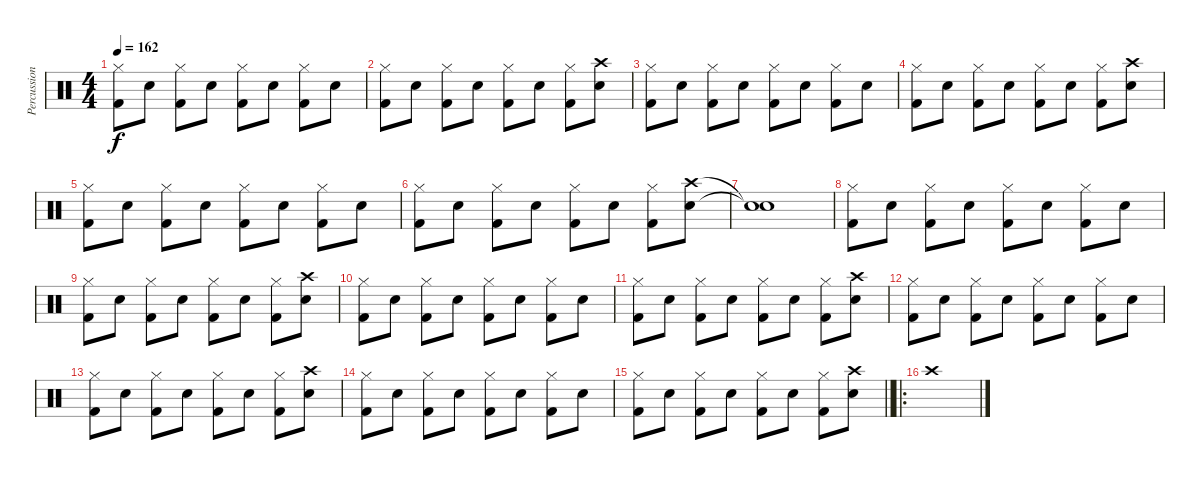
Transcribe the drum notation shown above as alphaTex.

\track ("Percussion" "Percussion") {instrument percussion}
\staff {score}
\articulation defaults
\ts (4 4)
\tempo 162
\clef neutral
\ks c
("Hi-Hat (closed)" "Kick (hit) 2").8{dy f} "Snare (hit) 2".8 ("Hi-Hat (closed)" "Kick (hit) 2").8 "Snare (hit) 2".8 ("Hi-Hat (closed)" "Kick (hit) 2").8 "Snare (hit) 2".8 ("Hi-Hat (closed)" "Kick (hit) 2").8 "Snare (hit) 2".8 |
("Hi-Hat (closed)" "Kick (hit) 2").8 "Snare (hit) 2".8 ("Hi-Hat (closed)" "Kick (hit) 2").8 "Snare (hit) 2".8 ("Hi-Hat (closed)" "Kick (hit) 2").8 "Snare (hit) 2".8 ("Hi-Hat (closed)" "Kick (hit) 2").8 ("Crash high (hit)" "Snare (hit) 2").8 |
("Hi-Hat (closed)" "Kick (hit) 2").8 "Snare (hit) 2".8 ("Hi-Hat (closed)" "Kick (hit) 2").8 "Snare (hit) 2".8 ("Hi-Hat (closed)" "Kick (hit) 2").8 "Snare (hit) 2".8 ("Hi-Hat (closed)" "Kick (hit) 2").8 "Snare (hit) 2".8 |
("Hi-Hat (closed)" "Kick (hit) 2").8 "Snare (hit) 2".8 ("Hi-Hat (closed)" "Kick (hit) 2").8 "Snare (hit) 2".8 ("Hi-Hat (closed)" "Kick (hit) 2").8 "Snare (hit) 2".8 ("Hi-Hat (closed)" "Kick (hit) 2").8 ("Crash high (hit)" "Snare (hit) 2").8 |
("Hi-Hat (closed)" "Kick (hit) 2").8 "Snare (hit) 2".8 ("Hi-Hat (closed)" "Kick (hit) 2").8 "Snare (hit) 2".8 ("Hi-Hat (closed)" "Kick (hit) 2").8 "Snare (hit) 2".8 ("Hi-Hat (closed)" "Kick (hit) 2").8 "Snare (hit) 2".8 |
("Hi-Hat (closed)" "Kick (hit) 2").8 "Snare (hit) 2".8 ("Hi-Hat (closed)" "Kick (hit) 2").8 "Snare (hit) 2".8 ("Hi-Hat (closed)" "Kick (hit) 2").8 "Snare (hit) 2".8 ("Hi-Hat (closed)" "Kick (hit) 2").8 ("Crash high (hit)" "Snare (hit) 2").8 |
("Snare (hit)"{t} "Snare (hit)"{t}).1 |
("Hi-Hat (closed)" "Kick (hit) 2").8 "Snare (hit) 2".8 ("Hi-Hat (closed)" "Kick (hit) 2").8 "Snare (hit) 2".8 ("Hi-Hat (closed)" "Kick (hit) 2").8 "Snare (hit) 2".8 ("Hi-Hat (closed)" "Kick (hit) 2").8 "Snare (hit) 2".8 |
("Hi-Hat (closed)" "Kick (hit) 2").8 "Snare (hit) 2".8 ("Hi-Hat (closed)" "Kick (hit) 2").8 "Snare (hit) 2".8 ("Hi-Hat (closed)" "Kick (hit) 2").8 "Snare (hit) 2".8 ("Hi-Hat (closed)" "Kick (hit) 2").8 ("Crash high (hit)" "Snare (hit) 2").8 |
("Hi-Hat (closed)" "Kick (hit) 2").8 "Snare (hit) 2".8 ("Hi-Hat (closed)" "Kick (hit) 2").8 "Snare (hit) 2".8 ("Hi-Hat (closed)" "Kick (hit) 2").8 "Snare (hit) 2".8 ("Hi-Hat (closed)" "Kick (hit) 2").8 "Snare (hit) 2".8 |
("Hi-Hat (closed)" "Kick (hit) 2").8 "Snare (hit) 2".8 ("Hi-Hat (closed)" "Kick (hit) 2").8 "Snare (hit) 2".8 ("Hi-Hat (closed)" "Kick (hit) 2").8 "Snare (hit) 2".8 ("Hi-Hat (closed)" "Kick (hit) 2").8 ("Crash high (hit)" "Snare (hit) 2").8 |
("Hi-Hat (closed)" "Kick (hit) 2").8 "Snare (hit) 2".8 ("Hi-Hat (closed)" "Kick (hit) 2").8 "Snare (hit) 2".8 ("Hi-Hat (closed)" "Kick (hit) 2").8 "Snare (hit) 2".8 ("Hi-Hat (closed)" "Kick (hit) 2").8 "Snare (hit) 2".8 |
("Hi-Hat (closed)" "Kick (hit) 2").8 "Snare (hit) 2".8 ("Hi-Hat (closed)" "Kick (hit) 2").8 "Snare (hit) 2".8 ("Hi-Hat (closed)" "Kick (hit) 2").8 "Snare (hit) 2".8 ("Hi-Hat (closed)" "Kick (hit) 2").8 ("Crash high (hit)" "Snare (hit) 2").8 |
("Hi-Hat (closed)" "Kick (hit) 2").8 "Snare (hit) 2".8 ("Hi-Hat (closed)" "Kick (hit) 2").8 "Snare (hit) 2".8 ("Hi-Hat (closed)" "Kick (hit) 2").8 "Snare (hit) 2".8 ("Hi-Hat (closed)" "Kick (hit) 2").8 "Snare (hit) 2".8 |
\barLineRight lightlight
("Hi-Hat (closed)" "Kick (hit) 2").8 "Snare (hit) 2".8 ("Hi-Hat (closed)" "Kick (hit) 2").8 "Snare (hit) 2".8 ("Hi-Hat (closed)" "Kick (hit) 2").8 "Snare (hit) 2".8 ("Hi-Hat (closed)" "Kick (hit) 2").8 ("Crash high (hit)" "Snare (hit) 2").8 |
\ro "Crash high (hit)".1
